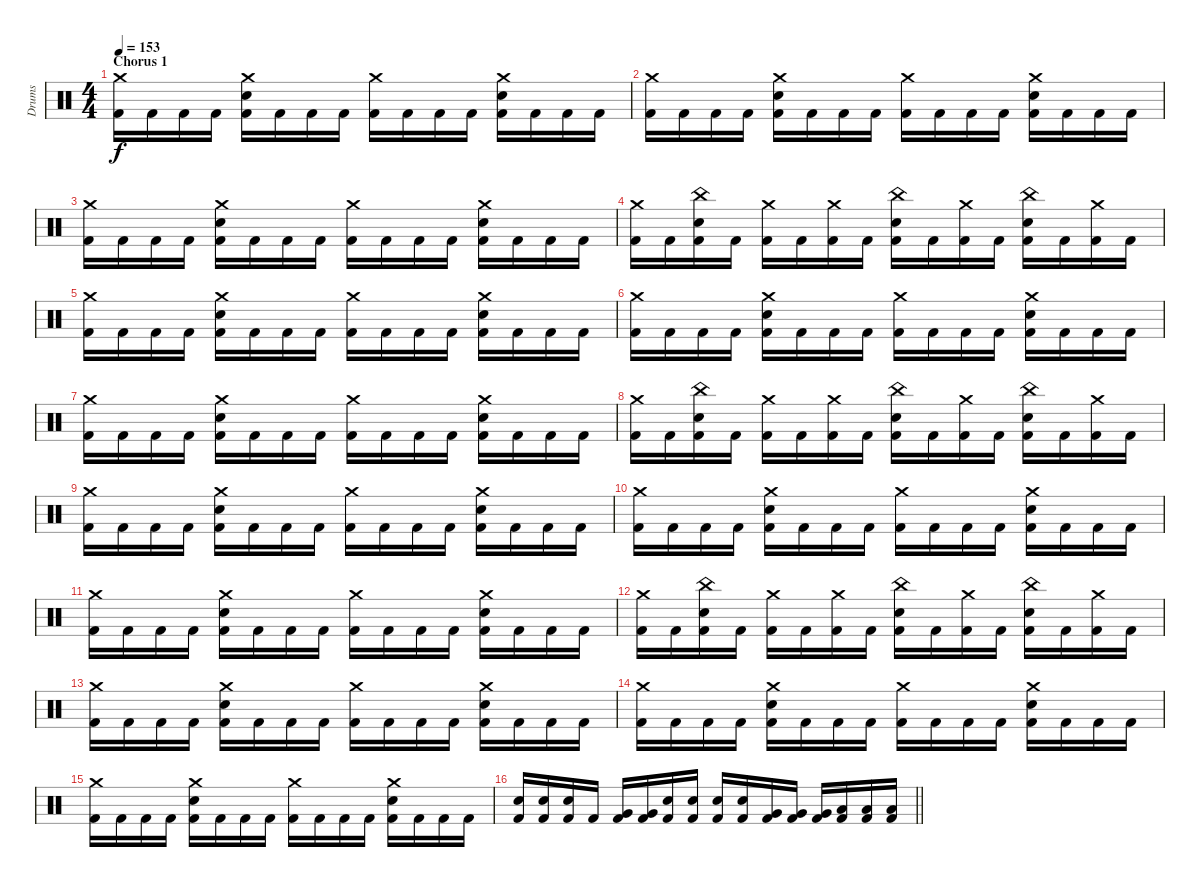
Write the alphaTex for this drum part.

\track ("Drums" "Drums") {instrument percussion}
\staff {score}
\articulation defaults
\ts (4 4)
\section ("" "Chorus 1")
\tempo 153
\clef neutral
\ks c
("Crash medium (hit)" "Kick (hit) 2").16{dy f} "Kick (hit) 2".16 "Kick (hit) 2".16 "Kick (hit) 2".16 ("Crash medium (hit)" "Electric Snare (hit)" "Kick (hit) 2").16 "Kick (hit) 2".16 "Kick (hit) 2".16 "Kick (hit) 2".16 ("Crash medium (hit)" "Kick (hit) 2").16 "Kick (hit) 2".16 "Kick (hit) 2".16 "Kick (hit) 2".16 ("Crash medium (hit)" "Electric Snare (hit)" "Kick (hit) 2").16 "Kick (hit) 2".16 "Kick (hit) 2".16 "Kick (hit) 2".16 |
("Crash medium (hit)" "Kick (hit) 2").16 "Kick (hit) 2".16 "Kick (hit) 2".16 "Kick (hit) 2".16 ("Crash medium (hit)" "Electric Snare (hit)" "Kick (hit) 2").16 "Kick (hit) 2".16 "Kick (hit) 2".16 "Kick (hit) 2".16 ("Crash medium (hit)" "Kick (hit) 2").16 "Kick (hit) 2".16 "Kick (hit) 2".16 "Kick (hit) 2".16 ("Crash medium (hit)" "Electric Snare (hit)" "Kick (hit) 2").16 "Kick (hit) 2".16 "Kick (hit) 2".16 "Kick (hit) 2".16 |
("Crash medium (hit)" "Kick (hit) 2").16 "Kick (hit) 2".16 "Kick (hit) 2".16 "Kick (hit) 2".16 ("Crash medium (hit)" "Electric Snare (hit)" "Kick (hit) 2").16 "Kick (hit) 2".16 "Kick (hit) 2".16 "Kick (hit) 2".16 ("Crash medium (hit)" "Kick (hit) 2").16 "Kick (hit) 2".16 "Kick (hit) 2".16 "Kick (hit) 2".16 ("Crash medium (hit)" "Electric Snare (hit)" "Kick (hit) 2").16 "Kick (hit) 2".16 "Kick (hit) 2".16 "Kick (hit) 2".16 |
("Crash medium (hit)" "Kick (hit) 2").16 "Kick (hit) 2".16 ("China (hit)" "Electric Snare (hit)" "Kick (hit) 2").16 "Kick (hit) 2".16 ("Crash medium (hit)" "Kick (hit) 2").16 "Kick (hit) 2".16 ("Crash medium (hit)" "Kick (hit) 2").16 "Kick (hit) 2".16 ("China (hit)" "Electric Snare (hit)" "Kick (hit) 2").16 "Kick (hit) 2".16 ("Crash medium (hit)" "Kick (hit) 2").16 "Kick (hit) 2".16 ("China (hit)" "Electric Snare (hit)" "Kick (hit) 2").16 "Kick (hit) 2".16 ("Crash medium (hit)" "Kick (hit) 2").16 "Kick (hit) 2".16 |
("Crash medium (hit)" "Kick (hit) 2").16 "Kick (hit) 2".16 "Kick (hit) 2".16 "Kick (hit) 2".16 ("Crash medium (hit)" "Electric Snare (hit)" "Kick (hit) 2").16 "Kick (hit) 2".16 "Kick (hit) 2".16 "Kick (hit) 2".16 ("Crash medium (hit)" "Kick (hit) 2").16 "Kick (hit) 2".16 "Kick (hit) 2".16 "Kick (hit) 2".16 ("Crash medium (hit)" "Electric Snare (hit)" "Kick (hit) 2").16 "Kick (hit) 2".16 "Kick (hit) 2".16 "Kick (hit) 2".16 |
("Crash medium (hit)" "Kick (hit) 2").16 "Kick (hit) 2".16 "Kick (hit) 2".16 "Kick (hit) 2".16 ("Crash medium (hit)" "Electric Snare (hit)" "Kick (hit) 2").16 "Kick (hit) 2".16 "Kick (hit) 2".16 "Kick (hit) 2".16 ("Crash medium (hit)" "Kick (hit) 2").16 "Kick (hit) 2".16 "Kick (hit) 2".16 "Kick (hit) 2".16 ("Crash medium (hit)" "Electric Snare (hit)" "Kick (hit) 2").16 "Kick (hit) 2".16 "Kick (hit) 2".16 "Kick (hit) 2".16 |
("Crash medium (hit)" "Kick (hit) 2").16 "Kick (hit) 2".16 "Kick (hit) 2".16 "Kick (hit) 2".16 ("Crash medium (hit)" "Electric Snare (hit)" "Kick (hit) 2").16 "Kick (hit) 2".16 "Kick (hit) 2".16 "Kick (hit) 2".16 ("Crash medium (hit)" "Kick (hit) 2").16 "Kick (hit) 2".16 "Kick (hit) 2".16 "Kick (hit) 2".16 ("Crash medium (hit)" "Electric Snare (hit)" "Kick (hit) 2").16 "Kick (hit) 2".16 "Kick (hit) 2".16 "Kick (hit) 2".16 |
("Crash medium (hit)" "Kick (hit) 2").16 "Kick (hit) 2".16 ("China (hit)" "Electric Snare (hit)" "Kick (hit) 2").16 "Kick (hit) 2".16 ("Crash medium (hit)" "Kick (hit) 2").16 "Kick (hit) 2".16 ("Crash medium (hit)" "Kick (hit) 2").16 "Kick (hit) 2".16 ("China (hit)" "Electric Snare (hit)" "Kick (hit) 2").16 "Kick (hit) 2".16 ("Crash medium (hit)" "Kick (hit) 2").16 "Kick (hit) 2".16 ("China (hit)" "Electric Snare (hit)" "Kick (hit) 2").16 "Kick (hit) 2".16 ("Crash medium (hit)" "Kick (hit) 2").16 "Kick (hit) 2".16 |
("Crash medium (hit)" "Kick (hit) 2").16 "Kick (hit) 2".16 "Kick (hit) 2".16 "Kick (hit) 2".16 ("Crash medium (hit)" "Electric Snare (hit)" "Kick (hit) 2").16 "Kick (hit) 2".16 "Kick (hit) 2".16 "Kick (hit) 2".16 ("Crash medium (hit)" "Kick (hit) 2").16 "Kick (hit) 2".16 "Kick (hit) 2".16 "Kick (hit) 2".16 ("Crash medium (hit)" "Electric Snare (hit)" "Kick (hit) 2").16 "Kick (hit) 2".16 "Kick (hit) 2".16 "Kick (hit) 2".16 |
("Crash medium (hit)" "Kick (hit) 2").16 "Kick (hit) 2".16 "Kick (hit) 2".16 "Kick (hit) 2".16 ("Crash medium (hit)" "Electric Snare (hit)" "Kick (hit) 2").16 "Kick (hit) 2".16 "Kick (hit) 2".16 "Kick (hit) 2".16 ("Crash medium (hit)" "Kick (hit) 2").16 "Kick (hit) 2".16 "Kick (hit) 2".16 "Kick (hit) 2".16 ("Crash medium (hit)" "Electric Snare (hit)" "Kick (hit) 2").16 "Kick (hit) 2".16 "Kick (hit) 2".16 "Kick (hit) 2".16 |
("Crash medium (hit)" "Kick (hit) 2").16 "Kick (hit) 2".16 "Kick (hit) 2".16 "Kick (hit) 2".16 ("Crash medium (hit)" "Electric Snare (hit)" "Kick (hit) 2").16 "Kick (hit) 2".16 "Kick (hit) 2".16 "Kick (hit) 2".16 ("Crash medium (hit)" "Kick (hit) 2").16 "Kick (hit) 2".16 "Kick (hit) 2".16 "Kick (hit) 2".16 ("Crash medium (hit)" "Electric Snare (hit)" "Kick (hit) 2").16 "Kick (hit) 2".16 "Kick (hit) 2".16 "Kick (hit) 2".16 |
("Crash medium (hit)" "Kick (hit) 2").16 "Kick (hit) 2".16 ("China (hit)" "Electric Snare (hit)" "Kick (hit) 2").16 "Kick (hit) 2".16 ("Crash medium (hit)" "Kick (hit) 2").16 "Kick (hit) 2".16 ("Crash medium (hit)" "Kick (hit) 2").16 "Kick (hit) 2".16 ("China (hit)" "Electric Snare (hit)" "Kick (hit) 2").16 "Kick (hit) 2".16 ("Crash medium (hit)" "Kick (hit) 2").16 "Kick (hit) 2".16 ("China (hit)" "Electric Snare (hit)" "Kick (hit) 2").16 "Kick (hit) 2".16 ("Crash medium (hit)" "Kick (hit) 2").16 "Kick (hit) 2".16 |
("Crash medium (hit)" "Kick (hit) 2").16 "Kick (hit) 2".16 "Kick (hit) 2".16 "Kick (hit) 2".16 ("Crash medium (hit)" "Electric Snare (hit)" "Kick (hit) 2").16 "Kick (hit) 2".16 "Kick (hit) 2".16 "Kick (hit) 2".16 ("Crash medium (hit)" "Kick (hit) 2").16 "Kick (hit) 2".16 "Kick (hit) 2".16 "Kick (hit) 2".16 ("Crash medium (hit)" "Electric Snare (hit)" "Kick (hit) 2").16 "Kick (hit) 2".16 "Kick (hit) 2".16 "Kick (hit) 2".16 |
("Crash medium (hit)" "Kick (hit) 2").16 "Kick (hit) 2".16 "Kick (hit) 2".16 "Kick (hit) 2".16 ("Crash medium (hit)" "Electric Snare (hit)" "Kick (hit) 2").16 "Kick (hit) 2".16 "Kick (hit) 2".16 "Kick (hit) 2".16 ("Crash medium (hit)" "Kick (hit) 2").16 "Kick (hit) 2".16 "Kick (hit) 2".16 "Kick (hit) 2".16 ("Crash medium (hit)" "Electric Snare (hit)" "Kick (hit) 2").16 "Kick (hit) 2".16 "Kick (hit) 2".16 "Kick (hit) 2".16 |
("Crash medium (hit)" "Kick (hit) 2").16 "Kick (hit) 2".16 "Kick (hit) 2".16 "Kick (hit) 2".16 ("Crash medium (hit)" "Electric Snare (hit)" "Kick (hit) 2").16 "Kick (hit) 2".16 "Kick (hit) 2".16 "Kick (hit) 2".16 ("Crash medium (hit)" "Kick (hit) 2").16 "Kick (hit) 2".16 "Kick (hit) 2".16 "Kick (hit) 2".16 ("Crash medium (hit)" "Electric Snare (hit)" "Kick (hit) 2").16 "Kick (hit) 2".16 "Kick (hit) 2".16 "Kick (hit) 2".16 |
\barLineRight lightlight
("Electric Snare (hit)" "Kick (hit) 2").16 ("Electric Snare (hit)" "Kick (hit) 2").16 ("Electric Snare (hit)" "Kick (hit) 2").16 "Kick (hit) 2".16 ("Very Low Tom (hit)" "Kick (hit) 2").16 ("Very Low Tom (hit)" "Kick (hit) 2").16 ("Electric Snare (hit)" "Kick (hit) 2").16 ("Electric Snare (hit)" "Kick (hit) 2").16 ("Electric Snare (hit)" "Kick (hit) 2").16 ("Electric Snare (hit)" "Kick (hit) 2").16 ("Very Low Tom (hit)" "Kick (hit) 2").16 ("Very Low Tom (hit)" "Kick (hit) 2").16 ("Very Low Tom (hit)" "Kick (hit) 2").16 ("Low Tom (hit)" "Kick (hit) 2").16 ("Low Tom (hit)" "Kick (hit) 2").16 ("Low Tom (hit)" "Kick (hit) 2").16
